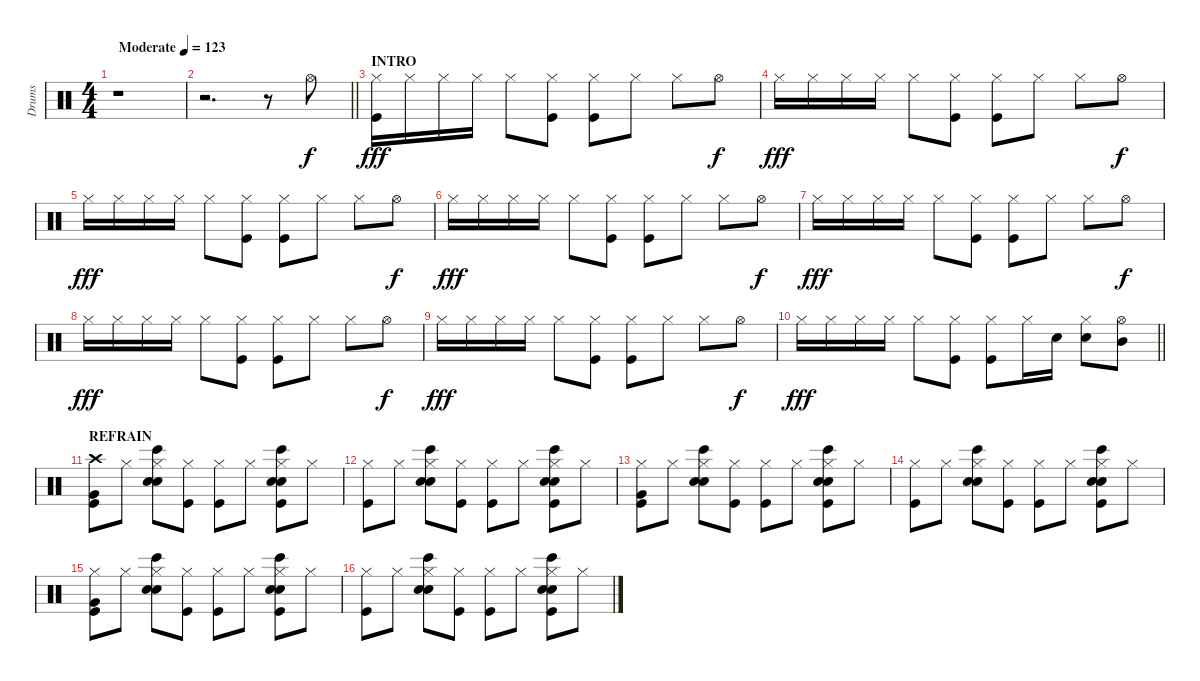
\track ("Drums" "Drums") {instrument percussion}
\staff {score}
\articulation defaults
\ts (4 4)
\tempo (123 "Moderate")
\clef neutral
\ks c
r.1{dy f} |
\barLineRight lightlight
r.2{d} r.8 "Hi-Hat (open)".8 |
\section ("" "INTRO")
("Kick (hit)" "Hi-Hat (closed)").16{dy fff} "Hi-Hat (closed)".16 "Hi-Hat (closed)".16 "Hi-Hat (closed)".16 "Hi-Hat (closed)".8 ("Kick (hit)" "Hi-Hat (closed)").8 ("Kick (hit)" "Hi-Hat (closed)").8 "Hi-Hat (closed)".8 "Hi-Hat (closed)".8 "Hi-Hat (open)".8{dy f} |
"Hi-Hat (closed)".16{dy fff} "Hi-Hat (closed)".16 "Hi-Hat (closed)".16 "Hi-Hat (closed)".16 "Hi-Hat (closed)".8 ("Kick (hit)" "Hi-Hat (closed)").8 ("Kick (hit)" "Hi-Hat (closed)").8 "Hi-Hat (closed)".8 "Hi-Hat (closed)".8 "Hi-Hat (open)".8{dy f} |
"Hi-Hat (closed)".16{dy fff} "Hi-Hat (closed)".16 "Hi-Hat (closed)".16 "Hi-Hat (closed)".16 "Hi-Hat (closed)".8 ("Kick (hit)" "Hi-Hat (closed)").8 ("Kick (hit)" "Hi-Hat (closed)").8 "Hi-Hat (closed)".8 "Hi-Hat (closed)".8 "Hi-Hat (open)".8{dy f} |
"Hi-Hat (closed)".16{dy fff} "Hi-Hat (closed)".16 "Hi-Hat (closed)".16 "Hi-Hat (closed)".16 "Hi-Hat (closed)".8 ("Kick (hit)" "Hi-Hat (closed)").8 ("Kick (hit)" "Hi-Hat (closed)").8 "Hi-Hat (closed)".8 "Hi-Hat (closed)".8 "Hi-Hat (open)".8{dy f} |
"Hi-Hat (closed)".16{dy fff} "Hi-Hat (closed)".16 "Hi-Hat (closed)".16 "Hi-Hat (closed)".16 "Hi-Hat (closed)".8 ("Kick (hit)" "Hi-Hat (closed)").8 ("Kick (hit)" "Hi-Hat (closed)").8 "Hi-Hat (closed)".8 "Hi-Hat (closed)".8 "Hi-Hat (open)".8{dy f} |
"Hi-Hat (closed)".16{dy fff} "Hi-Hat (closed)".16 "Hi-Hat (closed)".16 "Hi-Hat (closed)".16 "Hi-Hat (closed)".8 ("Kick (hit)" "Hi-Hat (closed)").8 ("Kick (hit)" "Hi-Hat (closed)").8 "Hi-Hat (closed)".8 "Hi-Hat (closed)".8 "Hi-Hat (open)".8{dy f} |
"Hi-Hat (closed)".16{dy fff} "Hi-Hat (closed)".16 "Hi-Hat (closed)".16 "Hi-Hat (closed)".16 "Hi-Hat (closed)".8 ("Kick (hit)" "Hi-Hat (closed)").8 ("Kick (hit)" "Hi-Hat (closed)").8 "Hi-Hat (closed)".8 "Hi-Hat (closed)".8 "Hi-Hat (open)".8{dy f} |
\barLineRight lightlight "Hi-Hat (closed)".16{dy fff} "Hi-Hat (closed)".16 "Hi-Hat (closed)".16 "Hi-Hat (closed)".16 "Hi-Hat (closed)".8
("Kick (hit)" "Hi-Hat (closed)").8 ("Kick (hit)" "Hi-Hat (closed)").8 "Hi-Hat (closed)".16 "Electric Snare (hit)".16 ("Hi-Hat (closed)" "Electric Snare (hit)").8 ("Mid Tom (hit)" "Hi-Hat (open)").8 |
\section ("" "REFRAIN")
("Kick (hit)" "Crash high (hit)" "Very Low Tom (hit)").8 "Hi-Hat (closed)".8 ("Hi-Hat (closed)" "Bongo High (hit)" "Hand Clap (hit)" "Electric Snare (hit)").8 ("Kick (hit)" "Hi-Hat (closed)").8 ("Hi-Hat (closed)" "Kick (hit)").8 "Hi-Hat (closed)".8 ("Hi-Hat (closed)" "Kick (hit)" "Electric Snare (hit)" "Hand Clap (hit)" "Bongo High (hit)").8 "Hi-Hat (closed)".8 |
("Hi-Hat (closed)" "Kick (hit)").8 "Hi-Hat (closed)".8 ("Hi-Hat (closed)" "Electric Snare (hit)" "Bongo High (hit)" "Hand Clap (hit)").8 ("Hi-Hat (closed)" "Kick (hit)").8 ("Hi-Hat (closed)" "Kick (hit)").8 "Hi-Hat (closed)".8 ("Hi-Hat (closed)" "Kick (hit)" "Electric Snare (hit)" "Bongo High (hit)" "Hand Clap (hit)").8 "Hi-Hat (closed)".8 |
("Kick (hit)" "Hi-Hat (closed)" "Very Low Tom (hit)").8 "Hi-Hat (closed)".8 ("Hi-Hat (closed)" "Bongo High (hit)" "Hand Clap (hit)" "Electric Snare (hit)").8 ("Kick (hit)" "Hi-Hat (closed)").8 ("Hi-Hat (closed)" "Kick (hit)").8 "Hi-Hat (closed)".8 ("Hi-Hat (closed)" "Kick (hit)" "Electric Snare (hit)" "Hand Clap (hit)" "Bongo High (hit)").8 "Hi-Hat (closed)".8 |
("Hi-Hat (closed)" "Kick (hit)").8 "Hi-Hat (closed)".8 ("Hi-Hat (closed)" "Electric Snare (hit)" "Bongo High (hit)" "Hand Clap (hit)").8 ("Hi-Hat (closed)" "Kick (hit)").8 ("Hi-Hat (closed)" "Kick (hit)").8 "Hi-Hat (closed)".8 ("Hi-Hat (closed)" "Kick (hit)" "Electric Snare (hit)" "Bongo High (hit)" "Hand Clap (hit)").8 "Hi-Hat (closed)".8 |
("Kick (hit)" "Hi-Hat (closed)" "Very Low Tom (hit)").8 "Hi-Hat (closed)".8 ("Hi-Hat (closed)" "Bongo High (hit)" "Hand Clap (hit)" "Electric Snare (hit)").8 ("Kick (hit)" "Hi-Hat (closed)").8 ("Hi-Hat (closed)" "Kick (hit)").8 "Hi-Hat (closed)".8 ("Hi-Hat (closed)" "Kick (hit)" "Electric Snare (hit)" "Hand Clap (hit)" "Bongo High (hit)").8 "Hi-Hat (closed)".8 |
("Hi-Hat (closed)" "Kick (hit)").8 "Hi-Hat (closed)".8 ("Hi-Hat (closed)" "Electric Snare (hit)" "Bongo High (hit)" "Hand Clap (hit)").8 ("Hi-Hat (closed)" "Kick (hit)").8 ("Hi-Hat (closed)" "Kick (hit)").8 "Hi-Hat (closed)".8 ("Hi-Hat (closed)" "Kick (hit)" "Electric Snare (hit)" "Bongo High (hit)" "Hand Clap (hit)").8 "Hi-Hat (closed)".8
